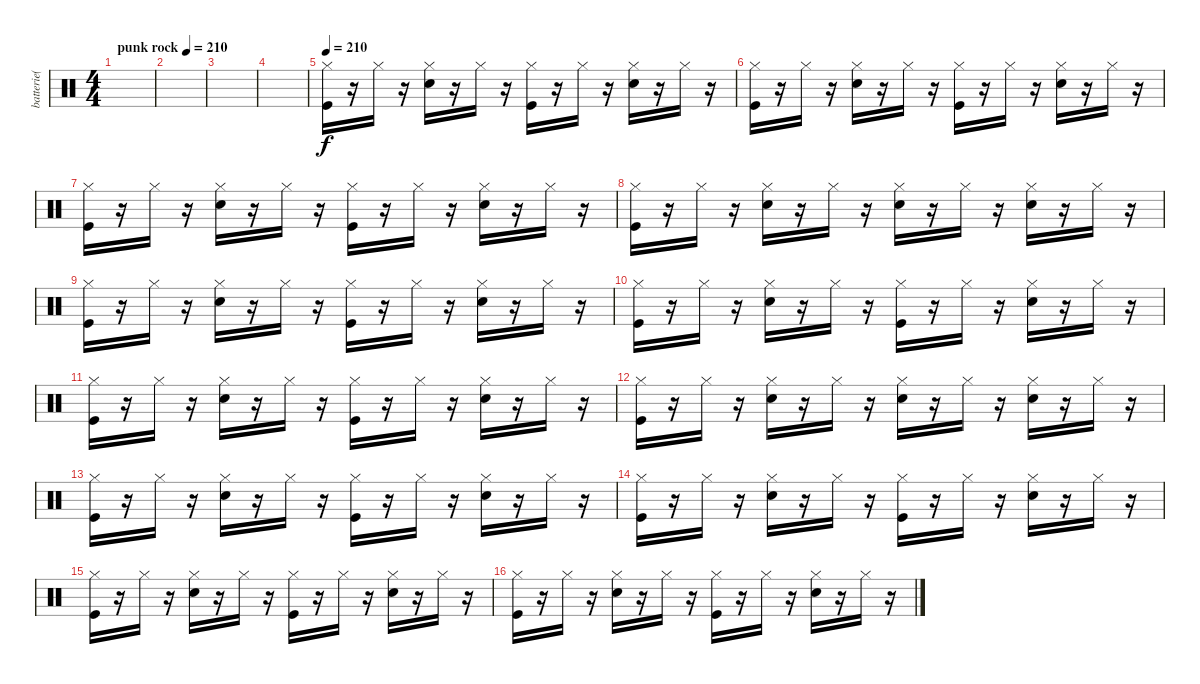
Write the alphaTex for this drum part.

\track ("batterie( Michael Davison )" "batterie( ") {instrument percussion}
\staff {score}
\articulation defaults
\ts (4 4)
\tempo (210 "punk rock")
\tempo 180
\tempo (210 "punk rock")
\clef neutral
\ks c
|
|
|
|
\tempo 210
("Hi-Hat (closed)" "Kick (hit)").16 r.16 "Hi-Hat (closed)".16 r.16 ("Hi-Hat (closed)" "Snare (hit) 2").16 r.16 "Hi-Hat (closed)".16 r.16 ("Hi-Hat (closed)" "Kick (hit)").16 r.16 "Hi-Hat (closed)".16 r.16 ("Hi-Hat (closed)" "Snare (hit) 2").16 r.16 "Hi-Hat (closed)".16 r.16 |
("Hi-Hat (closed)" "Kick (hit)").16 r.16 "Hi-Hat (closed)".16 r.16 ("Hi-Hat (closed)" "Snare (hit) 2").16 r.16 "Hi-Hat (closed)".16 r.16 ("Hi-Hat (closed)" "Kick (hit)").16 r.16 "Hi-Hat (closed)".16 r.16 ("Hi-Hat (closed)" "Snare (hit) 2").16 r.16 "Hi-Hat (closed)".16 r.16 |
("Hi-Hat (closed)" "Kick (hit)").16 r.16 "Hi-Hat (closed)".16 r.16 ("Hi-Hat (closed)" "Snare (hit) 2").16 r.16 "Hi-Hat (closed)".16 r.16 ("Hi-Hat (closed)" "Kick (hit)").16 r.16 "Hi-Hat (closed)".16 r.16 ("Hi-Hat (closed)" "Snare (hit) 2").16 r.16 "Hi-Hat (closed)".16 r.16 |
("Hi-Hat (closed)" "Kick (hit)").16 r.16 "Hi-Hat (closed)".16 r.16 ("Hi-Hat (closed)" "Snare (hit) 2").16 r.16 "Hi-Hat (closed)".16 r.16 ("Hi-Hat (closed)" "Snare (hit) 2").16 r.16 "Hi-Hat (closed)".16 r.16 ("Hi-Hat (closed)" "Snare (hit) 2").16 r.16 "Hi-Hat (closed)".16 r.16 |
("Hi-Hat (closed)" "Kick (hit)").16 r.16 "Hi-Hat (closed)".16 r.16 ("Hi-Hat (closed)" "Snare (hit) 2").16 r.16 "Hi-Hat (closed)".16 r.16 ("Hi-Hat (closed)" "Kick (hit)").16 r.16 "Hi-Hat (closed)".16 r.16 ("Hi-Hat (closed)" "Snare (hit) 2").16 r.16 "Hi-Hat (closed)".16 r.16 |
("Hi-Hat (closed)" "Kick (hit)").16 r.16 "Hi-Hat (closed)".16 r.16 ("Hi-Hat (closed)" "Snare (hit) 2").16 r.16 "Hi-Hat (closed)".16 r.16 ("Hi-Hat (closed)" "Kick (hit)").16 r.16 "Hi-Hat (closed)".16 r.16 ("Hi-Hat (closed)" "Snare (hit) 2").16 r.16 "Hi-Hat (closed)".16 r.16 |
("Hi-Hat (closed)" "Kick (hit)").16 r.16 "Hi-Hat (closed)".16 r.16 ("Hi-Hat (closed)" "Snare (hit) 2").16 r.16 "Hi-Hat (closed)".16 r.16 ("Hi-Hat (closed)" "Kick (hit)").16 r.16 "Hi-Hat (closed)".16 r.16 ("Hi-Hat (closed)" "Snare (hit) 2").16 r.16 "Hi-Hat (closed)".16 r.16 |
("Hi-Hat (closed)" "Kick (hit)").16 r.16 "Hi-Hat (closed)".16 r.16 ("Hi-Hat (closed)" "Snare (hit) 2").16 r.16 "Hi-Hat (closed)".16 r.16 ("Hi-Hat (closed)" "Snare (hit) 2").16 r.16 "Hi-Hat (closed)".16 r.16 ("Hi-Hat (closed)" "Snare (hit) 2").16 r.16 "Hi-Hat (closed)".16 r.16 |
("Hi-Hat (closed)" "Kick (hit)").16 r.16 "Hi-Hat (closed)".16 r.16 ("Hi-Hat (closed)" "Snare (hit) 2").16 r.16 "Hi-Hat (closed)".16 r.16 ("Hi-Hat (closed)" "Kick (hit)").16 r.16 "Hi-Hat (closed)".16 r.16 ("Hi-Hat (closed)" "Snare (hit) 2").16 r.16 "Hi-Hat (closed)".16 r.16 |
("Hi-Hat (closed)" "Kick (hit)").16 r.16 "Hi-Hat (closed)".16 r.16 ("Hi-Hat (closed)" "Snare (hit) 2").16 r.16 "Hi-Hat (closed)".16 r.16 ("Hi-Hat (closed)" "Kick (hit)").16 r.16 "Hi-Hat (closed)".16 r.16 ("Hi-Hat (closed)" "Snare (hit) 2").16 r.16 "Hi-Hat (closed)".16 r.16 |
("Hi-Hat (closed)" "Kick (hit)").16 r.16 "Hi-Hat (closed)".16 r.16 ("Hi-Hat (closed)" "Snare (hit) 2").16 r.16 "Hi-Hat (closed)".16 r.16 ("Hi-Hat (closed)" "Kick (hit)").16 r.16 "Hi-Hat (closed)".16 r.16 ("Hi-Hat (closed)" "Snare (hit) 2").16 r.16 "Hi-Hat (closed)".16 r.16 |
("Hi-Hat (closed)" "Kick (hit)").16 r.16 "Hi-Hat (closed)".16 r.16 ("Hi-Hat (closed)" "Snare (hit) 2").16 r.16 "Hi-Hat (closed)".16 r.16 ("Hi-Hat (closed)" "Kick (hit)").16 r.16 "Hi-Hat (closed)".16 r.16 ("Hi-Hat (closed)" "Snare (hit) 2").16 r.16 "Hi-Hat (closed)".16 r.16
